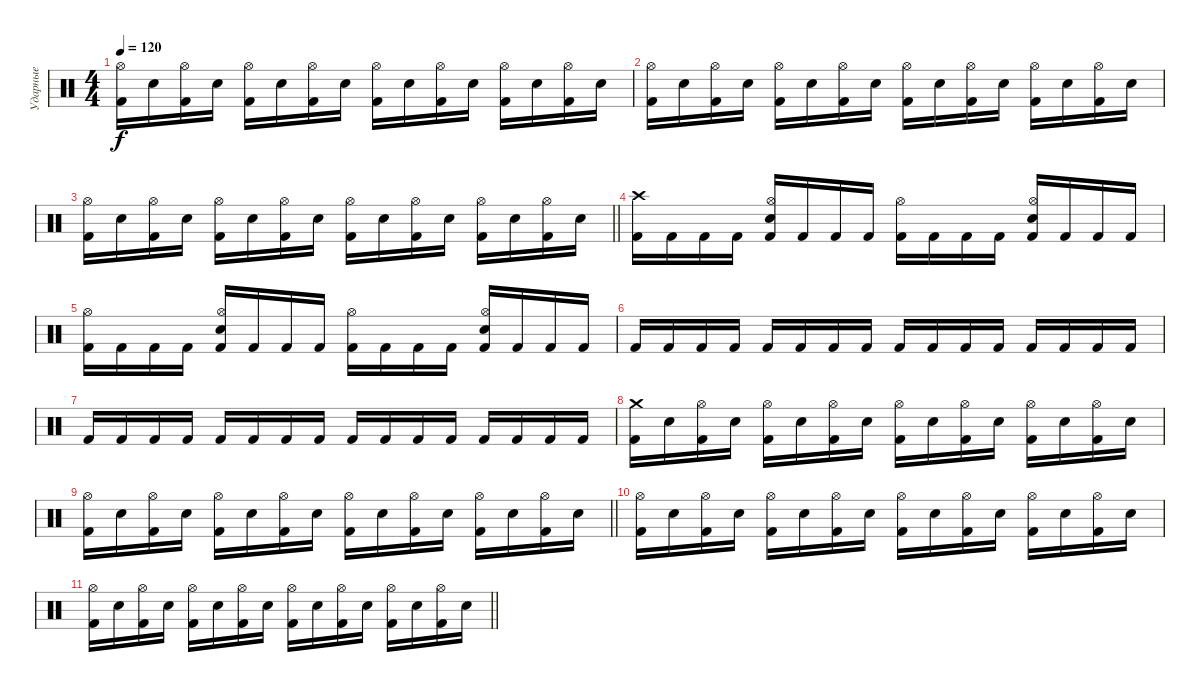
\track ("Ударные" "Ударные") {instrument percussion}
\staff {score}
\articulation defaults
\ts (4 4)
\tempo 120
\clef neutral
\ks c
("Kick (hit) 2" "Hi-Hat (open)").16{dy f} "Electric Snare (hit)".16 ("Kick (hit) 2" "Hi-Hat (open)").16 "Electric Snare (hit)".16 ("Kick (hit) 2" "Hi-Hat (open)").16 "Electric Snare (hit)".16 ("Kick (hit) 2" "Hi-Hat (open)").16 "Electric Snare (hit)".16 ("Kick (hit) 2" "Hi-Hat (open)").16 "Electric Snare (hit)".16 ("Kick (hit) 2" "Hi-Hat (open)").16 "Electric Snare (hit)".16 ("Kick (hit) 2" "Hi-Hat (open)").16 "Electric Snare (hit)".16 ("Kick (hit) 2" "Hi-Hat (open)").16 "Electric Snare (hit)".16 |
("Kick (hit) 2" "Hi-Hat (open)").16 "Electric Snare (hit)".16 ("Kick (hit) 2" "Hi-Hat (open)").16 "Electric Snare (hit)".16 ("Kick (hit) 2" "Hi-Hat (open)").16 "Electric Snare (hit)".16 ("Kick (hit) 2" "Hi-Hat (open)").16 "Electric Snare (hit)".16 ("Kick (hit) 2" "Hi-Hat (open)").16 "Electric Snare (hit)".16 ("Kick (hit) 2" "Hi-Hat (open)").16 "Electric Snare (hit)".16 ("Kick (hit) 2" "Hi-Hat (open)").16 "Electric Snare (hit)".16 ("Kick (hit) 2" "Hi-Hat (open)").16 "Electric Snare (hit)".16 |
\barLineRight lightlight
("Kick (hit) 2" "Hi-Hat (open)").16 "Electric Snare (hit)".16 ("Kick (hit) 2" "Hi-Hat (open)").16 "Electric Snare (hit)".16 ("Kick (hit) 2" "Hi-Hat (open)").16 "Electric Snare (hit)".16 ("Kick (hit) 2" "Hi-Hat (open)").16 "Electric Snare (hit)".16 ("Kick (hit) 2" "Hi-Hat (open)").16 "Electric Snare (hit)".16 ("Kick (hit) 2" "Hi-Hat (open)").16 "Electric Snare (hit)".16 ("Kick (hit) 2" "Hi-Hat (open)").16 "Electric Snare (hit)".16 ("Kick (hit) 2" "Hi-Hat (open)").16 "Electric Snare (hit)".16 |
("Kick (hit) 2" "Crash high (hit)").16 "Kick (hit) 2".16 "Kick (hit) 2".16 "Kick (hit) 2".16 ("Kick (hit) 2" "Electric Snare (hit)" "Hi-Hat (open)").16 "Kick (hit) 2".16 "Kick (hit) 2".16 "Kick (hit) 2".16 ("Kick (hit) 2" "Hi-Hat (open)").16 "Kick (hit) 2".16 "Kick (hit) 2".16 "Kick (hit) 2".16 ("Kick (hit) 2" "Electric Snare (hit)" "Hi-Hat (open)").16 "Kick (hit) 2".16 "Kick (hit) 2".16 "Kick (hit) 2".16 |
("Kick (hit) 2" "Hi-Hat (open)").16 "Kick (hit) 2".16 "Kick (hit) 2".16 "Kick (hit) 2".16 ("Kick (hit) 2" "Electric Snare (hit)" "Hi-Hat (open)").16 "Kick (hit) 2".16 "Kick (hit) 2".16 "Kick (hit) 2".16 ("Kick (hit) 2" "Hi-Hat (open)").16 "Kick (hit) 2".16 "Kick (hit) 2".16 "Kick (hit) 2".16 ("Kick (hit) 2" "Electric Snare (hit)" "Hi-Hat (open)").16 "Kick (hit) 2".16 "Kick (hit) 2".16 "Kick (hit) 2".16 |
"Kick (hit) 2".16 "Kick (hit) 2".16 "Kick (hit) 2".16 "Kick (hit) 2".16 "Kick (hit) 2".16 "Kick (hit) 2".16 "Kick (hit) 2".16 "Kick (hit) 2".16 "Kick (hit) 2".16 "Kick (hit) 2".16 "Kick (hit) 2".16 "Kick (hit) 2".16 "Kick (hit) 2".16 "Kick (hit) 2".16 "Kick (hit) 2".16 "Kick (hit) 2".16 |
"Kick (hit) 2".16 "Kick (hit) 2".16 "Kick (hit) 2".16 "Kick (hit) 2".16 "Kick (hit) 2".16 "Kick (hit) 2".16 "Kick (hit) 2".16 "Kick (hit) 2".16 "Kick (hit) 2".16 "Kick (hit) 2".16 "Kick (hit) 2".16 "Kick (hit) 2".16 "Kick (hit) 2".16 "Kick (hit) 2".16 "Kick (hit) 2".16 "Kick (hit) 2".16 |
("Kick (hit) 2" "Crash medium (hit)").16 "Electric Snare (hit)".16 ("Kick (hit) 2" "Hi-Hat (open)").16 "Electric Snare (hit)".16 ("Kick (hit) 2" "Hi-Hat (open)").16 "Electric Snare (hit)".16 ("Kick (hit) 2" "Hi-Hat (open)").16 "Electric Snare (hit)".16 ("Kick (hit) 2" "Hi-Hat (open)").16 "Electric Snare (hit)".16 ("Kick (hit) 2" "Hi-Hat (open)").16 "Electric Snare (hit)".16 ("Kick (hit) 2" "Hi-Hat (open)").16 "Electric Snare (hit)".16 ("Kick (hit) 2" "Hi-Hat (open)").16 "Electric Snare (hit)".16 |
\barLineRight lightlight
("Kick (hit) 2" "Hi-Hat (open)").16 "Electric Snare (hit)".16 ("Kick (hit) 2" "Hi-Hat (open)").16 "Electric Snare (hit)".16 ("Kick (hit) 2" "Hi-Hat (open)").16 "Electric Snare (hit)".16 ("Kick (hit) 2" "Hi-Hat (open)").16 "Electric Snare (hit)".16 ("Kick (hit) 2" "Hi-Hat (open)").16 "Electric Snare (hit)".16 ("Kick (hit) 2" "Hi-Hat (open)").16 "Electric Snare (hit)".16 ("Kick (hit) 2" "Hi-Hat (open)").16 "Electric Snare (hit)".16 ("Kick (hit) 2" "Hi-Hat (open)").16 "Electric Snare (hit)".16 |
("Kick (hit) 2" "Hi-Hat (open)").16 "Electric Snare (hit)".16 ("Kick (hit) 2" "Hi-Hat (open)").16 "Electric Snare (hit)".16 ("Kick (hit) 2" "Hi-Hat (open)").16 "Electric Snare (hit)".16 ("Kick (hit) 2" "Hi-Hat (open)").16 "Electric Snare (hit)".16 ("Kick (hit) 2" "Hi-Hat (open)").16 "Electric Snare (hit)".16 ("Kick (hit) 2" "Hi-Hat (open)").16 "Electric Snare (hit)".16 ("Kick (hit) 2" "Hi-Hat (open)").16 "Electric Snare (hit)".16 ("Kick (hit) 2" "Hi-Hat (open)").16 "Electric Snare (hit)".16 |
\barLineRight lightlight
("Kick (hit) 2" "Hi-Hat (open)").16 "Electric Snare (hit)".16 ("Kick (hit) 2" "Hi-Hat (open)").16 "Electric Snare (hit)".16 ("Kick (hit) 2" "Hi-Hat (open)").16 "Electric Snare (hit)".16 ("Kick (hit) 2" "Hi-Hat (open)").16 "Electric Snare (hit)".16 ("Kick (hit) 2" "Hi-Hat (open)").16 "Electric Snare (hit)".16 ("Kick (hit) 2" "Hi-Hat (open)").16 "Electric Snare (hit)".16 ("Kick (hit) 2" "Hi-Hat (open)").16 "Electric Snare (hit)".16 ("Kick (hit) 2" "Hi-Hat (open)").16 "Electric Snare (hit)".16
